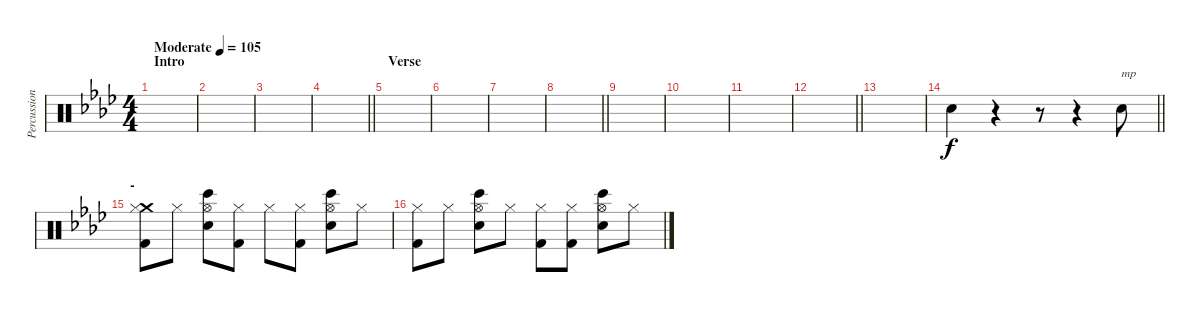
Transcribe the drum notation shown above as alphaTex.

\track ("Percussion" "Percussion") {instrument percussion}
\staff {score}
\articulation defaults
\ts (4 4)
\section ("" "Intro")
\tempo (105 "Moderate")
\clef neutral
\ks fminor
|
|
|
\barLineRight lightlight
|
\section ("" "Verse")
|
|
|
\barLineRight lightlight
|
\section ("" "")
|
|
|
\barLineRight lightlight
|
\section ("" "")
|
\barLineRight lightlight "Snare (hit) 2".4
r.4 r.8 r.4 "Snare (hit) 2".8{txt "mp"} |
\section ("" "-")
("Crash medium (hit)" "Hi-Hat (closed)" "Kick (hit) 2").8 "Hi-Hat (closed)".8 ("Hi-Hat (open)" "Snare (hit) 2" "Bongo High (hit)").8 ("Hi-Hat (closed)" "Kick (hit) 2").8 "Hi-Hat (closed)".8 ("Hi-Hat (closed)" "Kick (hit) 2").8 ("Hi-Hat (open)" "Snare (hit) 2" "Bongo High (hit)").8 "Hi-Hat (closed)".8 |
("Hi-Hat (closed)" "Kick (hit) 2").8 "Hi-Hat (closed)".8 ("Hi-Hat (open)" "Snare (hit) 2" "Bongo High (hit)").8 "Hi-Hat (closed)".8 ("Hi-Hat (closed)" "Kick (hit) 2").8 ("Hi-Hat (closed)" "Kick (hit) 2").8 ("Hi-Hat (open)" "Snare (hit) 2" "Bongo High (hit)").8 "Hi-Hat (closed)".8
